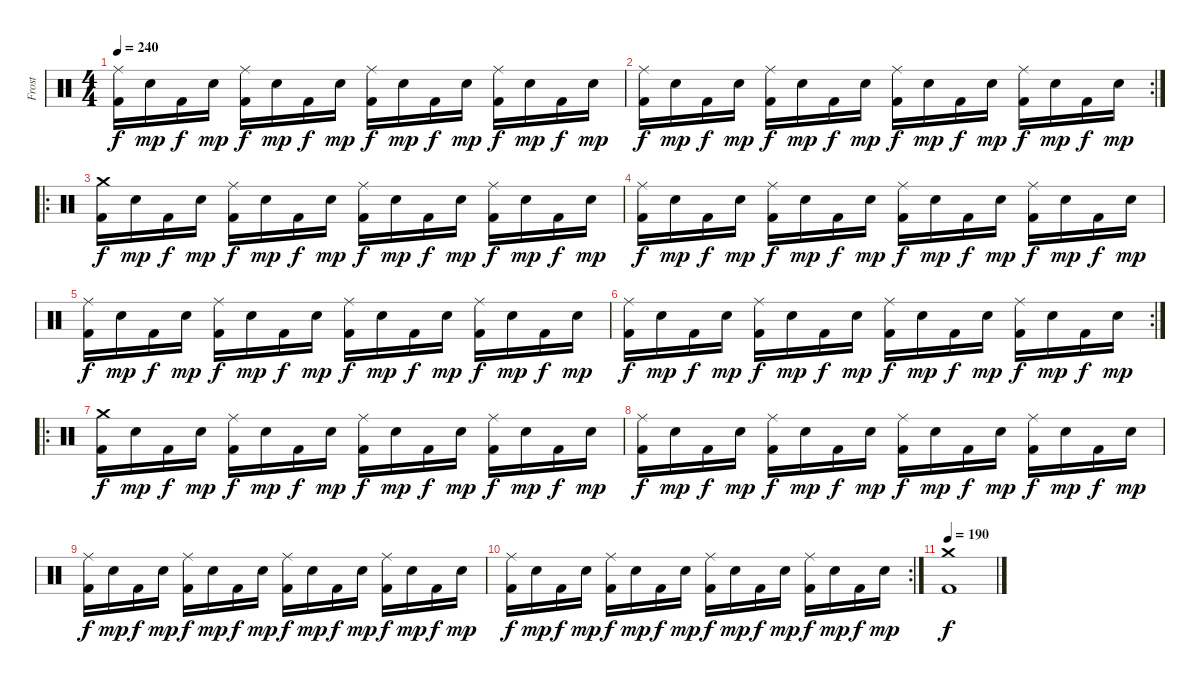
\track ("Frost" "Frost") {instrument percussion}
\staff {score}
\articulation defaults
\ts (4 4)
\tempo 240
\clef neutral
\ks c
("Ride (middle)" "Kick (hit) 2").16{dy f} "Electric Snare (hit)".16{dy mp} "Kick (hit) 2".16{dy f} "Electric Snare (hit)".16{dy mp} ("Ride (middle)" "Kick (hit) 2").16{dy f} "Electric Snare (hit)".16{dy mp} "Kick (hit) 2".16{dy f} "Electric Snare (hit)".16{dy mp} ("Ride (middle)" "Kick (hit) 2").16{dy f} "Electric Snare (hit)".16{dy mp} "Kick (hit) 2".16{dy f} "Electric Snare (hit)".16{dy mp} ("Ride (middle)" "Kick (hit) 2").16{dy f} "Electric Snare (hit)".16{dy mp} "Kick (hit) 2".16{dy f} "Electric Snare (hit)".16{dy mp} |
\rc 2
("Ride (middle)" "Kick (hit) 2").16{dy f} "Electric Snare (hit)".16{dy mp} "Kick (hit) 2".16{dy f} "Electric Snare (hit)".16{dy mp} ("Ride (middle)" "Kick (hit) 2").16{dy f} "Electric Snare (hit)".16{dy mp} "Kick (hit) 2".16{dy f} "Electric Snare (hit)".16{dy mp} ("Ride (middle)" "Kick (hit) 2").16{dy f} "Electric Snare (hit)".16{dy mp} "Kick (hit) 2".16{dy f} "Electric Snare (hit)".16{dy mp} ("Ride (middle)" "Kick (hit) 2").16{dy f} "Electric Snare (hit)".16{dy mp} "Kick (hit) 2".16{dy f} "Electric Snare (hit)".16{dy mp} |
\ro
("Crash medium (hit)" "Kick (hit) 2").16{dy f} "Electric Snare (hit)".16{dy mp} "Kick (hit) 2".16{dy f} "Electric Snare (hit)".16{dy mp} ("Ride (middle)" "Kick (hit) 2").16{dy f} "Electric Snare (hit)".16{dy mp} "Kick (hit) 2".16{dy f} "Electric Snare (hit)".16{dy mp} ("Ride (middle)" "Kick (hit) 2").16{dy f} "Electric Snare (hit)".16{dy mp} "Kick (hit) 2".16{dy f} "Electric Snare (hit)".16{dy mp} ("Ride (middle)" "Kick (hit) 2").16{dy f} "Electric Snare (hit)".16{dy mp} "Kick (hit) 2".16{dy f} "Electric Snare (hit)".16{dy mp} |
("Ride (middle)" "Kick (hit) 2").16{dy f} "Electric Snare (hit)".16{dy mp} "Kick (hit) 2".16{dy f} "Electric Snare (hit)".16{dy mp} ("Ride (middle)" "Kick (hit) 2").16{dy f} "Electric Snare (hit)".16{dy mp} "Kick (hit) 2".16{dy f} "Electric Snare (hit)".16{dy mp} ("Ride (middle)" "Kick (hit) 2").16{dy f} "Electric Snare (hit)".16{dy mp} "Kick (hit) 2".16{dy f} "Electric Snare (hit)".16{dy mp} ("Ride (middle)" "Kick (hit) 2").16{dy f} "Electric Snare (hit)".16{dy mp} "Kick (hit) 2".16{dy f} "Electric Snare (hit)".16{dy mp} |
("Ride (middle)" "Kick (hit) 2").16{dy f} "Electric Snare (hit)".16{dy mp} "Kick (hit) 2".16{dy f} "Electric Snare (hit)".16{dy mp} ("Ride (middle)" "Kick (hit) 2").16{dy f} "Electric Snare (hit)".16{dy mp} "Kick (hit) 2".16{dy f} "Electric Snare (hit)".16{dy mp} ("Ride (middle)" "Kick (hit) 2").16{dy f} "Electric Snare (hit)".16{dy mp} "Kick (hit) 2".16{dy f} "Electric Snare (hit)".16{dy mp} ("Ride (middle)" "Kick (hit) 2").16{dy f} "Electric Snare (hit)".16{dy mp} "Kick (hit) 2".16{dy f} "Electric Snare (hit)".16{dy mp} |
\rc 2
("Ride (middle)" "Kick (hit) 2").16{dy f} "Electric Snare (hit)".16{dy mp} "Kick (hit) 2".16{dy f} "Electric Snare (hit)".16{dy mp} ("Ride (middle)" "Kick (hit) 2").16{dy f} "Electric Snare (hit)".16{dy mp} "Kick (hit) 2".16{dy f} "Electric Snare (hit)".16{dy mp} ("Ride (middle)" "Kick (hit) 2").16{dy f} "Electric Snare (hit)".16{dy mp} "Kick (hit) 2".16{dy f} "Electric Snare (hit)".16{dy mp} ("Ride (middle)" "Kick (hit) 2").16{dy f} "Electric Snare (hit)".16{dy mp} "Kick (hit) 2".16{dy f} "Electric Snare (hit)".16{dy mp} |
\ro
("Crash medium (hit)" "Kick (hit) 2").16{dy f} "Electric Snare (hit)".16{dy mp} "Kick (hit) 2".16{dy f} "Electric Snare (hit)".16{dy mp} ("Ride (middle)" "Kick (hit) 2").16{dy f} "Electric Snare (hit)".16{dy mp} "Kick (hit) 2".16{dy f} "Electric Snare (hit)".16{dy mp} ("Ride (middle)" "Kick (hit) 2").16{dy f} "Electric Snare (hit)".16{dy mp} "Kick (hit) 2".16{dy f} "Electric Snare (hit)".16{dy mp} ("Ride (middle)" "Kick (hit) 2").16{dy f} "Electric Snare (hit)".16{dy mp} "Kick (hit) 2".16{dy f} "Electric Snare (hit)".16{dy mp} |
("Ride (middle)" "Kick (hit) 2").16{dy f} "Electric Snare (hit)".16{dy mp} "Kick (hit) 2".16{dy f} "Electric Snare (hit)".16{dy mp} ("Ride (middle)" "Kick (hit) 2").16{dy f} "Electric Snare (hit)".16{dy mp} "Kick (hit) 2".16{dy f} "Electric Snare (hit)".16{dy mp} ("Ride (middle)" "Kick (hit) 2").16{dy f} "Electric Snare (hit)".16{dy mp} "Kick (hit) 2".16{dy f} "Electric Snare (hit)".16{dy mp} ("Ride (middle)" "Kick (hit) 2").16{dy f} "Electric Snare (hit)".16{dy mp} "Kick (hit) 2".16{dy f} "Electric Snare (hit)".16{dy mp} |
("Ride (middle)" "Kick (hit) 2").16{dy f} "Electric Snare (hit)".16{dy mp} "Kick (hit) 2".16{dy f} "Electric Snare (hit)".16{dy mp} ("Ride (middle)" "Kick (hit) 2").16{dy f} "Electric Snare (hit)".16{dy mp} "Kick (hit) 2".16{dy f} "Electric Snare (hit)".16{dy mp} ("Ride (middle)" "Kick (hit) 2").16{dy f} "Electric Snare (hit)".16{dy mp} "Kick (hit) 2".16{dy f} "Electric Snare (hit)".16{dy mp} ("Ride (middle)" "Kick (hit) 2").16{dy f} "Electric Snare (hit)".16{dy mp} "Kick (hit) 2".16{dy f} "Electric Snare (hit)".16{dy mp} |
\rc 2
("Ride (middle)" "Kick (hit) 2").16{dy f} "Electric Snare (hit)".16{dy mp} "Kick (hit) 2".16{dy f} "Electric Snare (hit)".16{dy mp} ("Ride (middle)" "Kick (hit) 2").16{dy f} "Electric Snare (hit)".16{dy mp} "Kick (hit) 2".16{dy f} "Electric Snare (hit)".16{dy mp} ("Ride (middle)" "Kick (hit) 2").16{dy f} "Electric Snare (hit)".16{dy mp} "Kick (hit) 2".16{dy f} "Electric Snare (hit)".16{dy mp} ("Ride (middle)" "Kick (hit) 2").16{dy f} "Electric Snare (hit)".16{dy mp} "Kick (hit) 2".16{dy f} "Electric Snare (hit)".16{dy mp} |
\tempo 190
("Crash medium (hit)" "Kick (hit) 2").1{dy f}
